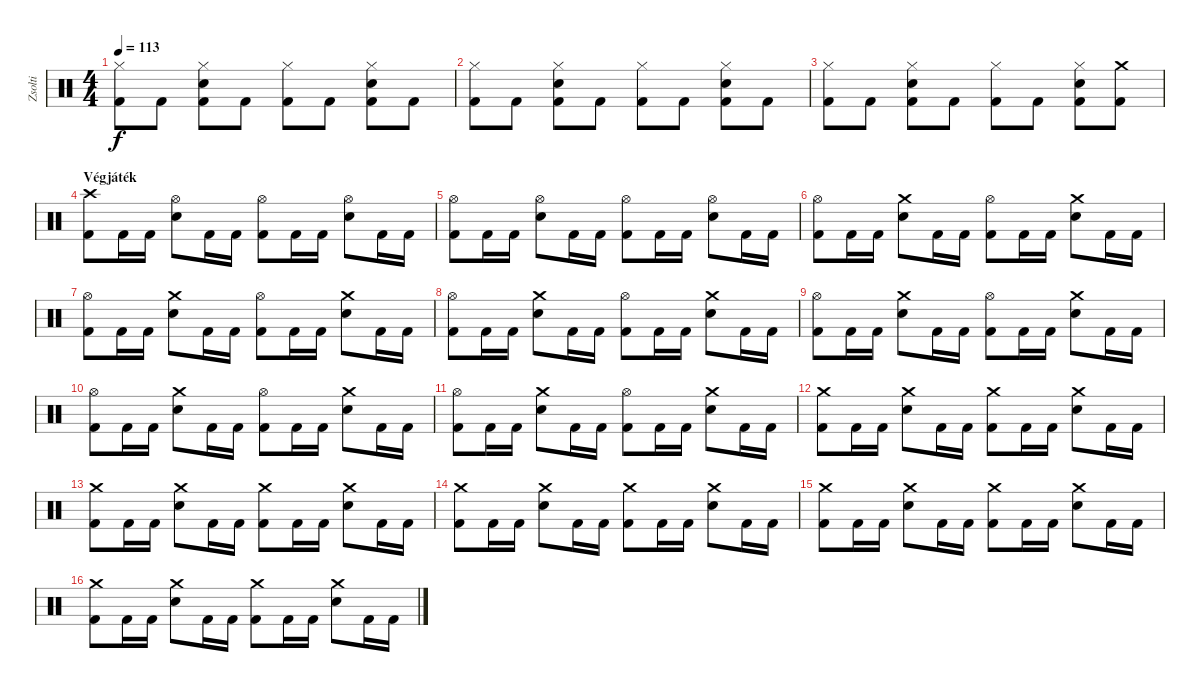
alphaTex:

\track ("Zsolti" "Zsolti") {instrument percussion}
\staff {score}
\articulation defaults
\ts (4 4)
\tempo 113
\clef neutral
\ks c
("Hi-Hat (closed)" "Kick (hit) 2").8{dy f} "Kick (hit) 2".8 ("Hi-Hat (closed)" "Snare (hit) 2" "Kick (hit) 2").8 "Kick (hit) 2".8 ("Hi-Hat (closed)" "Kick (hit) 2").8 "Kick (hit) 2".8 ("Hi-Hat (closed)" "Snare (hit) 2" "Kick (hit) 2").8 "Kick (hit) 2".8 |
("Hi-Hat (closed)" "Kick (hit) 2").8 "Kick (hit) 2".8 ("Hi-Hat (closed)" "Snare (hit) 2" "Kick (hit) 2").8 "Kick (hit) 2".8 ("Hi-Hat (closed)" "Kick (hit) 2").8 "Kick (hit) 2".8 ("Hi-Hat (closed)" "Snare (hit) 2" "Kick (hit) 2").8 "Kick (hit) 2".8 |
("Hi-Hat (closed)" "Kick (hit) 2").8 "Kick (hit) 2".8 ("Hi-Hat (closed)" "Snare (hit) 2" "Kick (hit) 2").8 "Kick (hit) 2".8 ("Hi-Hat (closed)" "Kick (hit) 2").8 "Kick (hit) 2".8 ("Hi-Hat (closed)" "Snare (hit) 2" "Kick (hit) 2").8 ("Crash medium (hit)" "Kick (hit) 2").8 |
\section ("" "Végjáték")
("Crash high (hit)" "Kick (hit) 2").8 "Kick (hit) 2".16 "Kick (hit) 2".16 ("Hi-Hat (open)" "Snare (hit) 2").8 "Kick (hit) 2".16 "Kick (hit) 2".16 ("Hi-Hat (open)" "Kick (hit) 2").8 "Kick (hit) 2".16 "Kick (hit) 2".16 ("Hi-Hat (open)" "Snare (hit) 2").8 "Kick (hit) 2".16 "Kick (hit) 2".16 |
("Hi-Hat (open)" "Kick (hit) 2").8 "Kick (hit) 2".16 "Kick (hit) 2".16 ("Hi-Hat (open)" "Snare (hit) 2").8 "Kick (hit) 2".16 "Kick (hit) 2".16 ("Hi-Hat (open)" "Kick (hit) 2").8 "Kick (hit) 2".16 "Kick (hit) 2".16 ("Hi-Hat (open)" "Snare (hit) 2").8 "Kick (hit) 2".16 "Kick (hit) 2".16 |
("Hi-Hat (open)" "Kick (hit) 2").8 "Kick (hit) 2".16 "Kick (hit) 2".16 ("Crash medium (hit)" "Snare (hit) 2").8 "Kick (hit) 2".16 "Kick (hit) 2".16 ("Hi-Hat (open)" "Kick (hit) 2").8 "Kick (hit) 2".16 "Kick (hit) 2".16 ("Crash medium (hit)" "Snare (hit) 2").8 "Kick (hit) 2".16 "Kick (hit) 2".16 |
("Hi-Hat (open)" "Kick (hit) 2").8 "Kick (hit) 2".16 "Kick (hit) 2".16 ("Crash medium (hit)" "Snare (hit) 2").8 "Kick (hit) 2".16 "Kick (hit) 2".16 ("Hi-Hat (open)" "Kick (hit) 2").8 "Kick (hit) 2".16 "Kick (hit) 2".16 ("Crash medium (hit)" "Snare (hit) 2").8 "Kick (hit) 2".16 "Kick (hit) 2".16 |
("Hi-Hat (open)" "Kick (hit) 2").8 "Kick (hit) 2".16 "Kick (hit) 2".16 ("Crash medium (hit)" "Snare (hit) 2").8 "Kick (hit) 2".16 "Kick (hit) 2".16 ("Hi-Hat (open)" "Kick (hit) 2").8 "Kick (hit) 2".16 "Kick (hit) 2".16 ("Crash medium (hit)" "Snare (hit) 2").8 "Kick (hit) 2".16 "Kick (hit) 2".16 |
("Hi-Hat (open)" "Kick (hit) 2").8 "Kick (hit) 2".16 "Kick (hit) 2".16 ("Crash medium (hit)" "Snare (hit) 2").8 "Kick (hit) 2".16 "Kick (hit) 2".16 ("Hi-Hat (open)" "Kick (hit) 2").8 "Kick (hit) 2".16 "Kick (hit) 2".16 ("Crash medium (hit)" "Snare (hit) 2").8 "Kick (hit) 2".16 "Kick (hit) 2".16 |
("Hi-Hat (open)" "Kick (hit) 2").8 "Kick (hit) 2".16 "Kick (hit) 2".16 ("Crash medium (hit)" "Snare (hit) 2").8 "Kick (hit) 2".16 "Kick (hit) 2".16 ("Hi-Hat (open)" "Kick (hit) 2").8 "Kick (hit) 2".16 "Kick (hit) 2".16 ("Crash medium (hit)" "Snare (hit) 2").8 "Kick (hit) 2".16 "Kick (hit) 2".16 |
("Hi-Hat (open)" "Kick (hit) 2").8 "Kick (hit) 2".16 "Kick (hit) 2".16 ("Crash medium (hit)" "Snare (hit) 2").8 "Kick (hit) 2".16 "Kick (hit) 2".16 ("Hi-Hat (open)" "Kick (hit) 2").8 "Kick (hit) 2".16 "Kick (hit) 2".16 ("Crash medium (hit)" "Snare (hit) 2").8 "Kick (hit) 2".16 "Kick (hit) 2".16 |
("Crash medium (hit)" "Kick (hit) 2").8 "Kick (hit) 2".16 "Kick (hit) 2".16 ("Crash medium (hit)" "Snare (hit) 2").8 "Kick (hit) 2".16 "Kick (hit) 2".16 ("Crash medium (hit)" "Kick (hit) 2").8 "Kick (hit) 2".16 "Kick (hit) 2".16 ("Crash medium (hit)" "Snare (hit) 2").8 "Kick (hit) 2".16 "Kick (hit) 2".16 |
("Crash medium (hit)" "Kick (hit) 2").8 "Kick (hit) 2".16 "Kick (hit) 2".16 ("Crash medium (hit)" "Snare (hit) 2").8 "Kick (hit) 2".16 "Kick (hit) 2".16 ("Crash medium (hit)" "Kick (hit) 2").8 "Kick (hit) 2".16 "Kick (hit) 2".16 ("Crash medium (hit)" "Snare (hit) 2").8 "Kick (hit) 2".16 "Kick (hit) 2".16 |
("Crash medium (hit)" "Kick (hit) 2").8 "Kick (hit) 2".16 "Kick (hit) 2".16 ("Crash medium (hit)" "Snare (hit) 2").8 "Kick (hit) 2".16 "Kick (hit) 2".16 ("Crash medium (hit)" "Kick (hit) 2").8 "Kick (hit) 2".16 "Kick (hit) 2".16 ("Crash medium (hit)" "Snare (hit) 2").8 "Kick (hit) 2".16 "Kick (hit) 2".16 |
("Crash medium (hit)" "Kick (hit) 2").8 "Kick (hit) 2".16 "Kick (hit) 2".16 ("Crash medium (hit)" "Snare (hit) 2").8 "Kick (hit) 2".16 "Kick (hit) 2".16 ("Crash medium (hit)" "Kick (hit) 2").8 "Kick (hit) 2".16 "Kick (hit) 2".16 ("Crash medium (hit)" "Snare (hit) 2").8 "Kick (hit) 2".16 "Kick (hit) 2".16 |
("Crash medium (hit)" "Kick (hit) 2").8 "Kick (hit) 2".16 "Kick (hit) 2".16 ("Crash medium (hit)" "Snare (hit) 2").8 "Kick (hit) 2".16 "Kick (hit) 2".16 ("Crash medium (hit)" "Kick (hit) 2").8 "Kick (hit) 2".16 "Kick (hit) 2".16 ("Crash medium (hit)" "Snare (hit) 2").8 "Kick (hit) 2".16 "Kick (hit) 2".16
